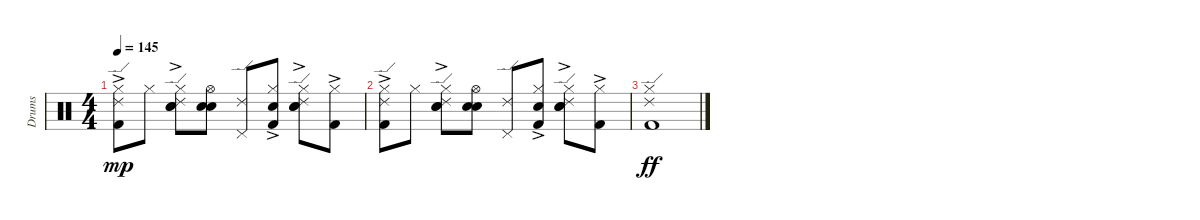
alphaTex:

\track ("Drums" "Drums") {instrument percussion}
\staff {score}
\articulation defaults
\ts (4 4)
\tempo 145
\clef neutral
\ks c
("Kick (hit) 2"{ac} "Ride (edge) 2" "Hi-Hat (closed)").8{dy mp} "Hi-Hat (closed)".8 ("Ride (edge) 2" "Hand Clap (hit)" "Electric Snare (hit)"{ac} "Hi-Hat (closed)").8 ("Hand Clap (hit)" "Electric Snare (hit)" "Hi-Hat (open)").8 ("Ride (edge) 2" "Pedal Hi-Hat (hit)").8 ("Kick (hit) 2"{ac} "Hand Clap (hit)" "Hi-Hat (closed)").8 ("Ride (edge) 2" "Hand Clap (hit)" "Electric Snare (hit)"{ac} "Hi-Hat (closed)").8 ("Kick (hit) 2"{ac} "Hi-Hat (closed)").8 |
("Kick (hit) 2"{ac} "Ride (edge) 2" "Hi-Hat (closed)").8 "Hi-Hat (closed)".8 ("Ride (edge) 2" "Hand Clap (hit)" "Electric Snare (hit)"{ac} "Hi-Hat (closed)").8 ("Hand Clap (hit)" "Electric Snare (hit)" "Hi-Hat (open)").8 ("Ride (edge) 2" "Pedal Hi-Hat (hit)").8 ("Kick (hit) 2"{ac} "Hand Clap (hit)" "Hi-Hat (closed)").8 ("Ride (edge) 2" "Hand Clap (hit)" "Electric Snare (hit)"{ac} "Hi-Hat (closed)").8 ("Kick (hit) 2"{ac} "Hi-Hat (closed)").8 |
("Kick (hit) 2" "Hi-Hat (closed)" "Ride (edge) 2").1{dy ff}
